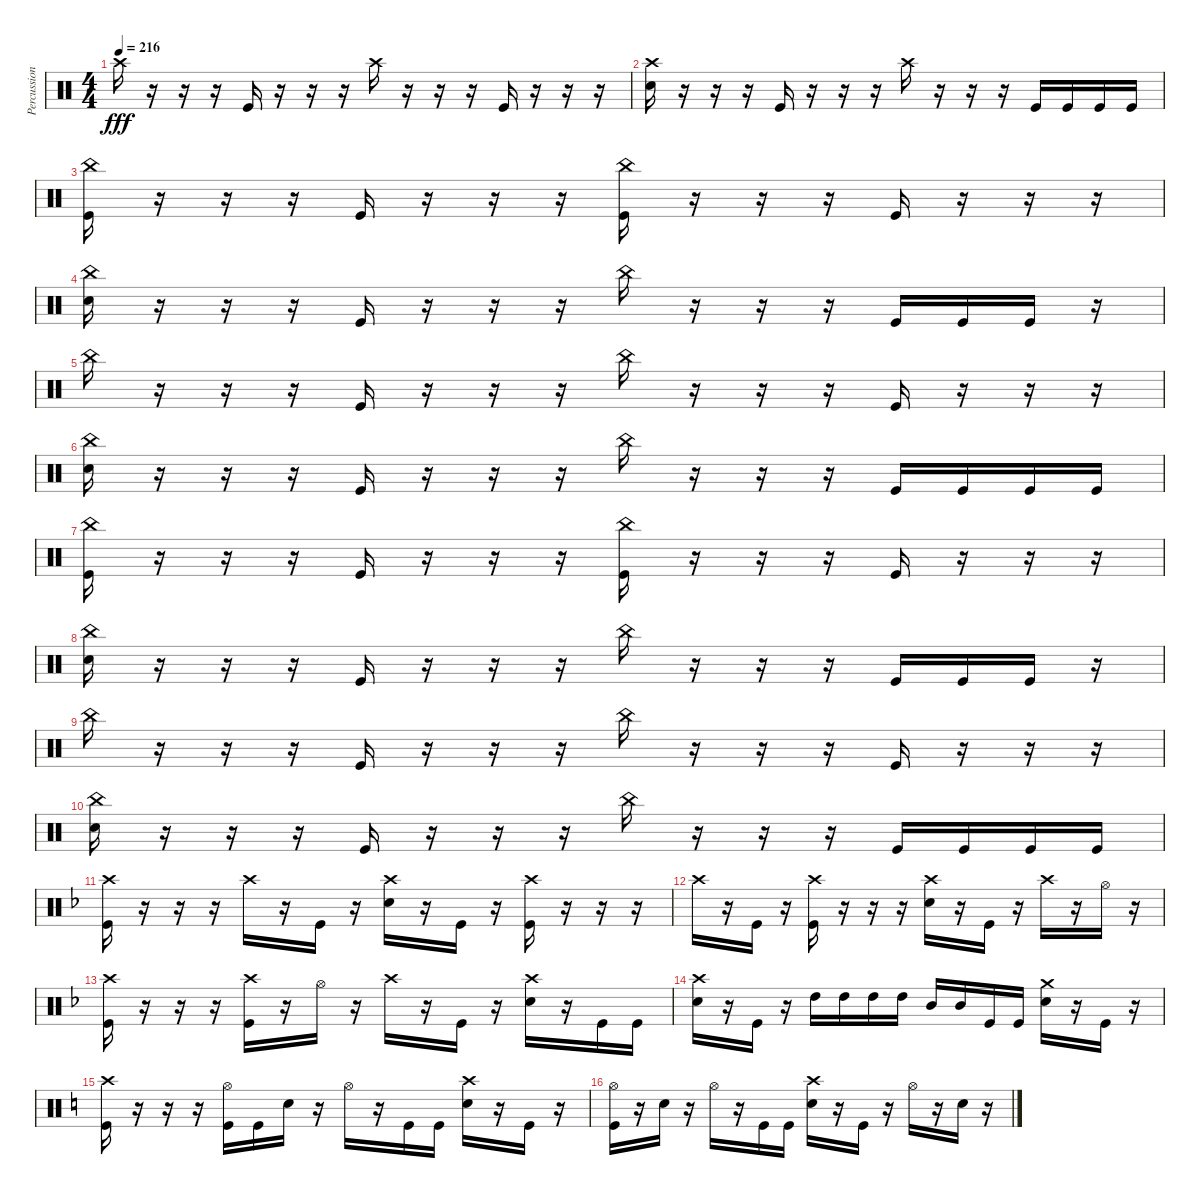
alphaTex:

\track ("Percussion" "Percussion") {instrument percussion}
\staff {score}
\articulation defaults
\ts (4 4)
\tempo 216
\clef neutral
\ks c "Crash high (hit)".16{dy fff}
r.16 r.16 r.16 "Kick (hit)".16 r.16 r.16 r.16 "Crash high (hit)".16 r.16 r.16 r.16 "Kick (hit)".16 r.16 r.16 r.16 |
("Crash high (hit)" "Electric Snare (hit)").16 r.16 r.16 r.16 "Kick (hit)".16 r.16 r.16 r.16 "Crash high (hit)".16 r.16 r.16 r.16 "Kick (hit)".16 "Kick (hit)".16 "Kick (hit)".16 "Kick (hit)".16 |
("China (hit)" "Kick (hit)").16 r.16 r.16 r.16 "Kick (hit)".16 r.16 r.16 r.16 ("China (hit)" "Kick (hit)").16 r.16 r.16 r.16 "Kick (hit)".16 r.16 r.16 r.16 |
("China (hit)" "Electric Snare (hit)").16 r.16 r.16 r.16 "Kick (hit)".16 r.16 r.16 r.16 "China (hit)".16 r.16 r.16 r.16 "Kick (hit)".16 "Kick (hit)".16 "Kick (hit)".16 r.16 |
"China (hit)".16 r.16 r.16 r.16 "Kick (hit)".16 r.16 r.16 r.16 "China (hit)".16 r.16 r.16 r.16 "Kick (hit)".16 r.16 r.16 r.16 |
("China (hit)" "Electric Snare (hit)").16 r.16 r.16 r.16 "Kick (hit)".16 r.16 r.16 r.16 "China (hit)".16 r.16 r.16 r.16 "Kick (hit)".16 "Kick (hit)".16 "Kick (hit)".16 "Kick (hit)".16 |
("China (hit)" "Kick (hit)").16 r.16 r.16 r.16 "Kick (hit)".16 r.16 r.16 r.16 ("China (hit)" "Kick (hit)").16 r.16 r.16 r.16 "Kick (hit)".16 r.16 r.16 r.16 |
("China (hit)" "Electric Snare (hit)").16 r.16 r.16 r.16 "Kick (hit)".16 r.16 r.16 r.16 "China (hit)".16 r.16 r.16 r.16 "Kick (hit)".16 "Kick (hit)".16 "Kick (hit)".16 r.16 |
"China (hit)".16 r.16 r.16 r.16 "Kick (hit)".16 r.16 r.16 r.16 "China (hit)".16 r.16 r.16 r.16 "Kick (hit)".16 r.16 r.16 r.16 |
("China (hit)" "Electric Snare (hit)").16 r.16 r.16 r.16 "Kick (hit)".16 r.16 r.16 r.16 "China (hit)".16 r.16 r.16 r.16 "Kick (hit)".16 "Kick (hit)".16 "Kick (hit)".16 "Kick (hit)".16 |
\ks f
("Crash high (hit)" "Kick (hit)").16 r.16 r.16 r.16 "Crash high (hit)".16 r.16 "Kick (hit)".16 r.16 ("Crash high (hit)" "Electric Snare (hit)").16 r.16 "Kick (hit)".16 r.16 ("Crash high (hit)" "Kick (hit)").16 r.16 r.16 r.16 |
"Crash high (hit)".16 r.16 "Kick (hit)".16 r.16 ("Crash high (hit)" "Kick (hit)").16 r.16 r.16 r.16 ("Crash high (hit)" "Electric Snare (hit)").16 r.16 "Kick (hit)".16 r.16 "Crash high (hit)".16 r.16 "Hi-Hat (open)".16 r.16 |
("Crash high (hit)" "Kick (hit)").16 r.16 r.16 r.16 ("Crash high (hit)" "Kick (hit)").16 r.16 "Hi-Hat (open)".16 r.16 "Crash high (hit)".16 r.16 "Kick (hit)".16 r.16 ("Crash high (hit)" "Electric Snare (hit)").16 r.16 "Kick (hit)".16 "Kick (hit)".16 |
("Crash high (hit)" "Electric Snare (hit)").16 r.16 "Kick (hit)".16 r.16 "High Tom (hit)".16 "High Tom (hit)".16 "High Tom (hit)".16 "High Tom (hit)".16 "Mid Tom (hit)".16 "Mid Tom (hit)".16 "Kick (hit)".16 "Kick (hit)".16 ("Crash medium (hit)" "Electric Snare (hit)").16 r.16 "Kick (hit)".16 r.16 |
\ks c
("Crash high (hit)" "Kick (hit)").16 r.16 r.16 r.16 ("Hi-Hat (open)" "Kick (hit)").16 "Kick (hit)".16 "Electric Snare (hit)".16 r.16 "Hi-Hat (open)".16 r.16 "Kick (hit)".16 "Kick (hit)".16 ("Crash high (hit)" "Electric Snare (hit)").16 r.16 "Kick (hit)".16 r.16 |
("Hi-Hat (open)" "Kick (hit)").16 r.16 "Electric Snare (hit)".16 r.16 "Hi-Hat (open)".16 r.16 "Kick (hit)".16 "Kick (hit)".16 ("Crash high (hit)" "Electric Snare (hit)").16 r.16 "Kick (hit)".16 r.16 "Hi-Hat (open)".16 r.16 "Electric Snare (hit)".16 r.16
